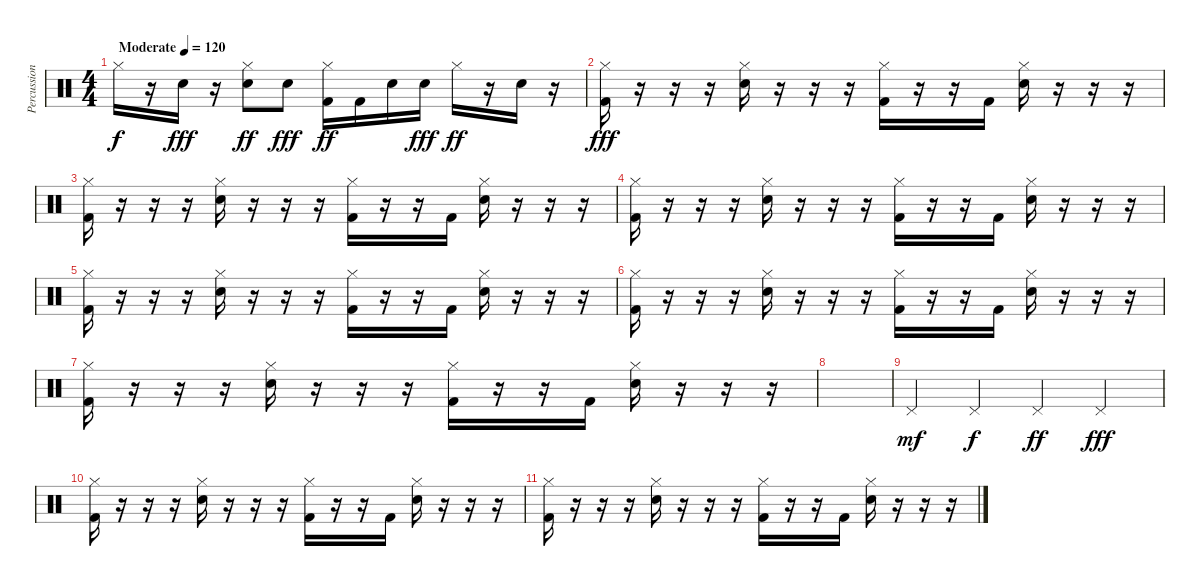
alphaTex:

\track ("Percussion" "Percussion") {instrument percussion}
\staff {score}
\articulation defaults
\ts (4 4)
\tempo (120 "Moderate")
\clef neutral
\ks c "Hi-Hat (closed)".16{dy f}
r.16 "Electric Snare (hit)".16{dy fff} r.16 ("Hi-Hat (closed)" "Electric Snare (hit)").8{dy ff} "Electric Snare (hit)".8{dy fff} ("Kick (hit) 2" "Hi-Hat (closed)").16{dy ff} "Kick (hit) 2".16 "Snare (hit) 2".16 "Snare (hit) 2".16{dy fff} "Hi-Hat (closed)".16{dy ff} r.16 "Snare (hit) 2".16 r.16 |
("Hi-Hat (closed)" "Kick (hit) 2").16{dy fff} r.16 r.16 r.16 ("Hi-Hat (closed)" "Electric Snare (hit)").16 r.16 r.16 r.16 ("Hi-Hat (closed)" "Kick (hit) 2").16 r.16 r.16 "Kick (hit) 2".16 ("Hi-Hat (closed)" "Electric Snare (hit)").16 r.16 r.16 r.16 |
("Hi-Hat (closed)" "Kick (hit) 2").16 r.16 r.16 r.16 ("Hi-Hat (closed)" "Electric Snare (hit)").16 r.16 r.16 r.16 ("Hi-Hat (closed)" "Kick (hit) 2").16 r.16 r.16 "Kick (hit) 2".16 ("Hi-Hat (closed)" "Electric Snare (hit)").16 r.16 r.16 r.16 |
("Hi-Hat (closed)" "Kick (hit) 2").16 r.16 r.16 r.16 ("Hi-Hat (closed)" "Electric Snare (hit)").16 r.16 r.16 r.16 ("Hi-Hat (closed)" "Kick (hit) 2").16 r.16 r.16 "Kick (hit) 2".16 ("Hi-Hat (closed)" "Electric Snare (hit)").16 r.16 r.16 r.16 |
("Hi-Hat (closed)" "Kick (hit) 2").16 r.16 r.16 r.16 ("Hi-Hat (closed)" "Electric Snare (hit)").16 r.16 r.16 r.16 ("Hi-Hat (closed)" "Kick (hit) 2").16 r.16 r.16 "Kick (hit) 2".16 ("Hi-Hat (closed)" "Electric Snare (hit)").16 r.16 r.16 r.16 |
("Hi-Hat (closed)" "Kick (hit) 2").16 r.16 r.16 r.16 ("Hi-Hat (closed)" "Electric Snare (hit)").16 r.16 r.16 r.16 ("Hi-Hat (closed)" "Kick (hit) 2").16 r.16 r.16 "Kick (hit) 2".16 ("Hi-Hat (closed)" "Electric Snare (hit)").16 r.16 r.16 r.16 |
("Hi-Hat (closed)" "Kick (hit) 2").16 r.16 r.16 r.16 ("Hi-Hat (closed)" "Electric Snare (hit)").16 r.16 r.16 r.16 ("Hi-Hat (closed)" "Kick (hit) 2").16 r.16 r.16 "Kick (hit) 2".16 ("Hi-Hat (closed)" "Electric Snare (hit)").16 r.16 r.16 r.16 |
|
"Pedal Hi-Hat (hit)".4{dy mf} "Pedal Hi-Hat (hit)".4{dy f} "Pedal Hi-Hat (hit)".4{dy ff} "Pedal Hi-Hat (hit)".4{dy fff} |
("Hi-Hat (closed)" "Kick (hit) 2").16 r.16 r.16 r.16 ("Hi-Hat (closed)" "Electric Snare (hit)").16 r.16 r.16 r.16 ("Hi-Hat (closed)" "Kick (hit) 2").16 r.16 r.16 "Kick (hit) 2".16 ("Hi-Hat (closed)" "Electric Snare (hit)").16 r.16 r.16 r.16 |
("Hi-Hat (closed)" "Kick (hit) 2").16 r.16 r.16 r.16 ("Hi-Hat (closed)" "Electric Snare (hit)").16 r.16 r.16 r.16 ("Hi-Hat (closed)" "Kick (hit) 2").16 r.16 r.16 "Kick (hit) 2".16 ("Hi-Hat (closed)" "Electric Snare (hit)").16 r.16 r.16 r.16
